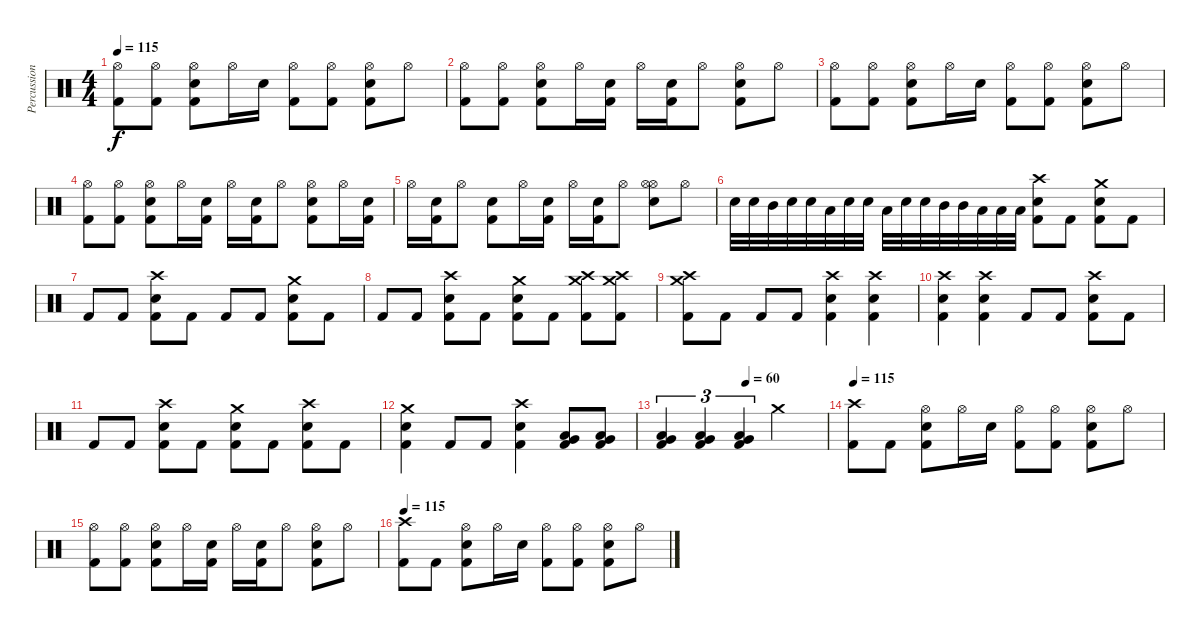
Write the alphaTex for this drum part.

\track ("Percussion" "Percussion") {instrument percussion}
\staff {score}
\articulation defaults
\ts (4 4)
\tempo 115
\clef neutral
\ks c
("Hi-Hat (open)" "Kick (hit) 2").8{dy f} ("Hi-Hat (open)" "Kick (hit) 2").8 ("Hi-Hat (open)" "Kick (hit) 2" "Snare (hit) 2").8 "Hi-Hat (open)".16 "Snare (hit) 2".16 ("Hi-Hat (open)" "Kick (hit) 2").8 ("Hi-Hat (open)" "Kick (hit) 2").8 ("Hi-Hat (open)" "Kick (hit) 2" "Snare (hit) 2").8 "Hi-Hat (open)".8 |
("Hi-Hat (open)" "Kick (hit) 2").8 ("Hi-Hat (open)" "Kick (hit) 2").8 ("Hi-Hat (open)" "Kick (hit) 2" "Snare (hit) 2").8 "Hi-Hat (open)".16 ("Kick (hit) 2" "Snare (hit) 2").16 "Hi-Hat (open)".16 ("Kick (hit) 2" "Snare (hit) 2").16 "Hi-Hat (open)".8 ("Hi-Hat (open)" "Kick (hit) 2" "Snare (hit) 2").8 "Hi-Hat (open)".8 |
("Hi-Hat (open)" "Kick (hit) 2").8 ("Hi-Hat (open)" "Kick (hit) 2").8 ("Hi-Hat (open)" "Kick (hit) 2" "Snare (hit) 2").8 "Hi-Hat (open)".16 "Snare (hit) 2".16 ("Hi-Hat (open)" "Kick (hit) 2").8 ("Hi-Hat (open)" "Kick (hit) 2").8 ("Hi-Hat (open)" "Kick (hit) 2" "Snare (hit) 2").8 "Hi-Hat (open)".8 |
("Hi-Hat (open)" "Kick (hit) 2").8 ("Hi-Hat (open)" "Kick (hit) 2").8 ("Hi-Hat (open)" "Kick (hit) 2" "Snare (hit) 2").8 "Hi-Hat (open)".16 ("Kick (hit) 2" "Snare (hit) 2").16 "Hi-Hat (open)".16 ("Kick (hit) 2" "Snare (hit) 2").16 "Hi-Hat (open)".8 ("Hi-Hat (open)" "Kick (hit) 2" "Snare (hit) 2").8 "Hi-Hat (open)".16 ("Kick (hit) 2" "Snare (hit) 2").16 |
"Hi-Hat (open)".16 ("Kick (hit) 2" "Snare (hit) 2").16 "Hi-Hat (open)".8 ("Kick (hit) 2" "Snare (hit) 2").8 "Hi-Hat (open)".16 ("Kick (hit) 2" "Snare (hit) 2").16 "Hi-Hat (open)".16 ("Kick (hit) 2" "Snare (hit) 2").16 "Hi-Hat (open)".8 ("Hi-Hat (open)" "Hi-Hat (open)" "Snare (hit) 2").8 "Hi-Hat (open)".8 |
"Snare (hit) 2".32 "Snare (hit) 2".32 "Mid Tom (hit)".32 "Snare (hit) 2".32 "Snare (hit) 2".32 "Low Tom (hit)".32 "Snare (hit) 2".32 "Snare (hit) 2".32 "Low Floor Tom (hit)".32 "Snare (hit) 2".32 "Snare (hit) 2".32 "Mid Tom (hit)".32 "Mid Tom (hit)".32 "Low Tom (hit)".32 "Low Tom (hit)".32 "Low Floor Tom (hit)".32 ("Crash high (hit)" "Kick (hit) 2" "Snare (hit) 2").8 "Kick (hit) 2".8 ("Crash medium (hit)" "Kick (hit) 2" "Snare (hit) 2").8 "Kick (hit) 2".8 |
"Kick (hit) 2".8 "Kick (hit) 2".8 ("Crash high (hit)" "Kick (hit) 2" "Snare (hit) 2").8 "Kick (hit) 2".8 "Kick (hit) 2".8 "Kick (hit) 2".8 ("Crash medium (hit)" "Kick (hit) 2" "Snare (hit) 2").8 "Kick (hit) 2".8 |
"Kick (hit) 2".8 "Kick (hit) 2".8 ("Crash high (hit)" "Kick (hit) 2" "Snare (hit) 2").8 "Kick (hit) 2".8 ("Crash medium (hit)" "Kick (hit) 2" "Snare (hit) 2").8 "Kick (hit) 2".8 ("Crash medium (hit)" "Crash high (hit)" "Kick (hit) 2").8 ("Crash medium (hit)" "Crash high (hit)" "Kick (hit) 2").8 |
("Crash medium (hit)" "Crash high (hit)" "Kick (hit) 2").8 "Kick (hit) 2".8 "Kick (hit) 2".8 "Kick (hit) 2".8 ("Crash high (hit)" "Kick (hit) 2" "Snare (hit) 2").4 ("Crash high (hit)" "Kick (hit) 2" "Snare (hit) 2").4 |
("Crash high (hit)" "Kick (hit) 2" "Snare (hit) 2").4 ("Crash high (hit)" "Kick (hit) 2" "Snare (hit) 2").4 "Kick (hit) 2".8 "Kick (hit) 2".8 ("Crash high (hit)" "Kick (hit) 2" "Snare (hit) 2").8 "Kick (hit) 2".8 |
"Kick (hit) 2".8 "Kick (hit) 2".8 ("Crash high (hit)" "Kick (hit) 2" "Snare (hit) 2").8 "Kick (hit) 2".8 ("Crash medium (hit)" "Kick (hit) 2" "Snare (hit) 2").8 "Kick (hit) 2".8 ("Crash high (hit)" "Kick (hit) 2" "Snare (hit) 2").8 "Kick (hit) 2".8 |
("Crash medium (hit)" "Kick (hit) 2" "Snare (hit) 2").4 "Kick (hit) 2".8 "Kick (hit) 2".8 ("Crash high (hit)" "Kick (hit) 2" "Snare (hit) 2").4 ("Very Low Tom (hit)" "Low Floor Tom (hit)" "Kick (hit) 2").8 ("Very Low Tom (hit)" "Low Floor Tom (hit)" "Kick (hit) 2").8 |
\tempo (60 0.5)
("Very Low Tom (hit)" "Low Floor Tom (hit)" "Kick (hit) 2").4{tu (3 2)} ("Very Low Tom (hit)" "Low Floor Tom (hit)" "Kick (hit) 2").4{tu (3 2)} ("Very Low Tom (hit)" "Low Floor Tom (hit)" "Kick (hit) 2").4{tu (3 2)} "Crash medium (hit)".2 |
\tempo 115
("Crash high (hit)" "Kick (hit) 2").8 "Kick (hit) 2".8 ("Hi-Hat (open)" "Kick (hit) 2" "Snare (hit) 2").8 "Hi-Hat (open)".16 "Snare (hit) 2".16 ("Hi-Hat (open)" "Kick (hit) 2").8 ("Hi-Hat (open)" "Kick (hit) 2").8 ("Hi-Hat (open)" "Kick (hit) 2" "Snare (hit) 2").8 "Hi-Hat (open)".8 |
("Hi-Hat (open)" "Kick (hit) 2").8 ("Hi-Hat (open)" "Kick (hit) 2").8 ("Hi-Hat (open)" "Kick (hit) 2" "Snare (hit) 2").8 "Hi-Hat (open)".16 ("Kick (hit) 2" "Snare (hit) 2").16 "Hi-Hat (open)".16 ("Kick (hit) 2" "Snare (hit) 2").16 "Hi-Hat (open)".8 ("Hi-Hat (open)" "Kick (hit) 2" "Snare (hit) 2").8 "Hi-Hat (open)".8 |
\tempo 115
("Crash high (hit)" "Kick (hit) 2").8 "Kick (hit) 2".8 ("Hi-Hat (open)" "Kick (hit) 2" "Snare (hit) 2").8 "Hi-Hat (open)".16 "Snare (hit) 2".16 ("Hi-Hat (open)" "Kick (hit) 2").8 ("Hi-Hat (open)" "Kick (hit) 2").8 ("Hi-Hat (open)" "Kick (hit) 2" "Snare (hit) 2").8 "Hi-Hat (open)".8
